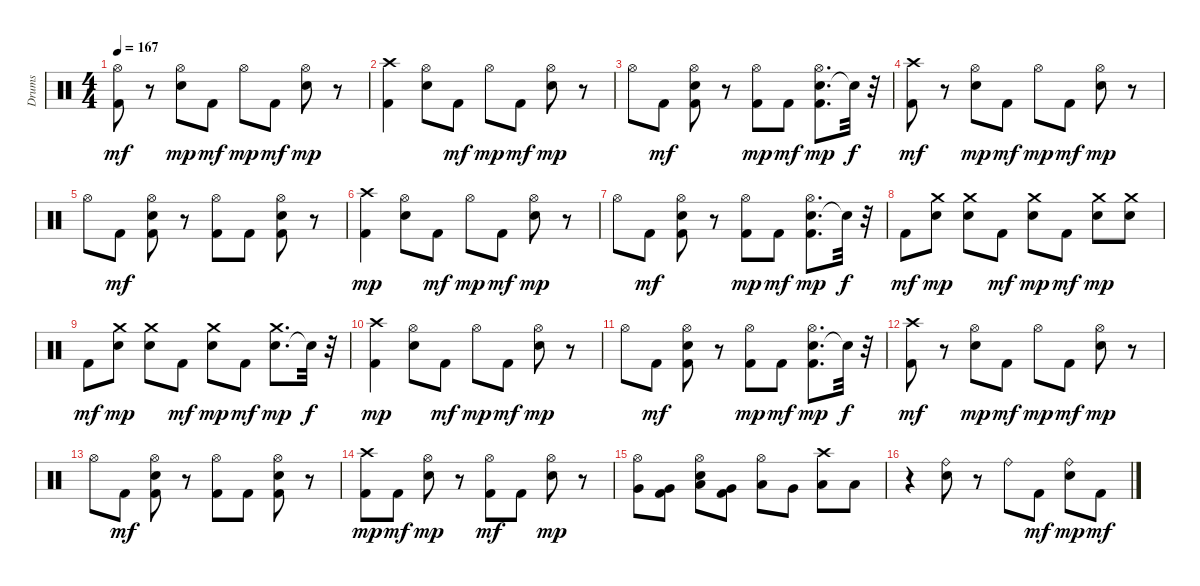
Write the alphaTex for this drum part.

\track ("Drums" "Drums") {instrument percussion}
\staff {score}
\articulation defaults
\ts (4 4)
\tempo 167
\clef neutral
\ks c
("Hi-Hat (open)" "Kick (hit) 2").8{dy mf} r.8 ("Electric Snare (hit)" "Hi-Hat (open)").8{dy mp} "Kick (hit) 2".8{dy mf} "Hi-Hat (open)".8{dy mp} "Kick (hit) 2".8{dy mf} ("Electric Snare (hit)" "Hi-Hat (open)").8{dy mp} r.8 |
("Kick (hit) 2" "Crash high (hit)").4 ("Electric Snare (hit)" "Hi-Hat (open)").8 "Kick (hit) 2".8{dy mf} "Hi-Hat (open)".8{dy mp} "Kick (hit) 2".8{dy mf} ("Electric Snare (hit)" "Hi-Hat (open)").8{dy mp} r.8 |
"Hi-Hat (open)".8 "Kick (hit) 2".8{dy mf} ("Electric Snare (hit)" "Hi-Hat (open)" "Kick (hit) 2").8 r.8 ("Hi-Hat (open)" "Kick (hit) 2").8{dy mp} "Kick (hit) 2".8{dy mf} ("Electric Snare (hit)" "Hi-Hat (open)" "Kick (hit) 2").8{d dy mp} "Snare (hit)"{t}.32{dy f} r.32 |
("Crash high (hit)" "Kick (hit) 2").8{dy mf} r.8 ("Electric Snare (hit)" "Hi-Hat (open)").8{dy mp} "Kick (hit) 2".8{dy mf} "Hi-Hat (open)".8{dy mp} "Kick (hit) 2".8{dy mf} ("Electric Snare (hit)" "Hi-Hat (open)").8{dy mp} r.8 |
"Hi-Hat (open)".8 "Kick (hit) 2".8{dy mf} ("Electric Snare (hit)" "Hi-Hat (open)" "Kick (hit) 2").8 r.8 ("Hi-Hat (open)" "Kick (hit) 2").8 "Kick (hit) 2".8 ("Electric Snare (hit)" "Hi-Hat (open)" "Kick (hit) 2").8 r.8 |
("Kick (hit) 2" "Crash high (hit)").4{dy mp} ("Electric Snare (hit)" "Hi-Hat (open)").8 "Kick (hit) 2".8{dy mf} "Hi-Hat (open)".8{dy mp} "Kick (hit) 2".8{dy mf} ("Electric Snare (hit)" "Hi-Hat (open)").8{dy mp} r.8 |
"Hi-Hat (open)".8 "Kick (hit) 2".8{dy mf} ("Electric Snare (hit)" "Hi-Hat (open)" "Kick (hit) 2").8 r.8 ("Hi-Hat (open)" "Kick (hit) 2").8{dy mp} "Kick (hit) 2".8{dy mf} ("Electric Snare (hit)" "Hi-Hat (open)" "Kick (hit) 2").8{d dy mp} "Snare (hit)"{t}.32{dy f} r.32 |
"Kick (hit) 2".8{dy mf} ("Electric Snare (hit)" "Crash medium (hit)").8{dy mp} ("Crash medium (hit)" "Electric Snare (hit)").8 "Kick (hit) 2".8{dy mf} ("Electric Snare (hit)" "Crash medium (hit)").8{dy mp} "Kick (hit) 2".8{dy mf} ("Electric Snare (hit)" "Crash medium (hit)").8{dy mp} ("Electric Snare (hit)" "Crash medium (hit)").8 |
"Kick (hit) 2".8{dy mf} ("Electric Snare (hit)" "Crash medium (hit)").8{dy mp} ("Electric Snare (hit)" "Crash medium (hit)").8 "Kick (hit) 2".8{dy mf} ("Electric Snare (hit)" "Crash medium (hit)").8{dy mp} "Kick (hit) 2".8{dy mf} ("Electric Snare (hit)" "Crash medium (hit)").8{d dy mp} "Snare (hit)"{t}.32{dy f} r.32 |
("Kick (hit) 2" "Crash high (hit)").4{dy mp} ("Electric Snare (hit)" "Hi-Hat (open)").8 "Kick (hit) 2".8{dy mf} "Hi-Hat (open)".8{dy mp} "Kick (hit) 2".8{dy mf} ("Electric Snare (hit)" "Hi-Hat (open)").8{dy mp} r.8 |
"Hi-Hat (open)".8 "Kick (hit) 2".8{dy mf} ("Electric Snare (hit)" "Hi-Hat (open)" "Kick (hit) 2").8 r.8 ("Hi-Hat (open)" "Kick (hit) 2").8{dy mp} "Kick (hit) 2".8{dy mf} ("Electric Snare (hit)" "Hi-Hat (open)" "Kick (hit) 2").8{d dy mp} "Snare (hit)"{t}.32{dy f} r.32 |
("Crash high (hit)" "Kick (hit) 2").8{dy mf} r.8 ("Electric Snare (hit)" "Hi-Hat (open)").8{dy mp} "Kick (hit) 2".8{dy mf} "Hi-Hat (open)".8{dy mp} "Kick (hit) 2".8{dy mf} ("Electric Snare (hit)" "Hi-Hat (open)").8{dy mp} r.8 |
"Hi-Hat (open)".8 "Kick (hit) 2".8{dy mf} ("Electric Snare (hit)" "Hi-Hat (open)" "Kick (hit) 2").8 r.8 ("Hi-Hat (open)" "Kick (hit) 2").8 "Kick (hit) 2".8 ("Electric Snare (hit)" "Hi-Hat (open)" "Kick (hit) 2").8 r.8 |
("Kick (hit) 2" "Crash high (hit)").8{dy mp} "Kick (hit) 2".8{dy mf} ("Electric Snare (hit)" "Hi-Hat (open)").8{dy mp} r.8 ("Hi-Hat (open)" "Kick (hit) 2").8{dy mf} "Kick (hit) 2".8 ("Electric Snare (hit)" "Hi-Hat (open)").8{dy mp} r.8 |
("Hi-Hat (open)" "Very Low Tom (hit)").8 ("Kick (hit) 2" "Very Low Tom (hit)").8 ("Electric Snare (hit)" "Low Floor Tom (hit)" "Hi-Hat (open)").8 ("Kick (hit) 2" "Very Low Tom (hit)").8 ("Hi-Hat (open)" "Low Floor Tom (hit)").8 "Very Low Tom (hit)".8 ("Low Floor Tom (hit)" "Crash high (hit)").8 "Low Floor Tom (hit)".8 |
r.4 ("Electric Snare (hit)" "Ride (bell)").8 r.8 "Ride (bell)".8 "Kick (hit) 2".8{dy mf} ("Electric Snare (hit)" "Ride (bell)").8{dy mp} "Kick (hit) 2".8{dy mf}
